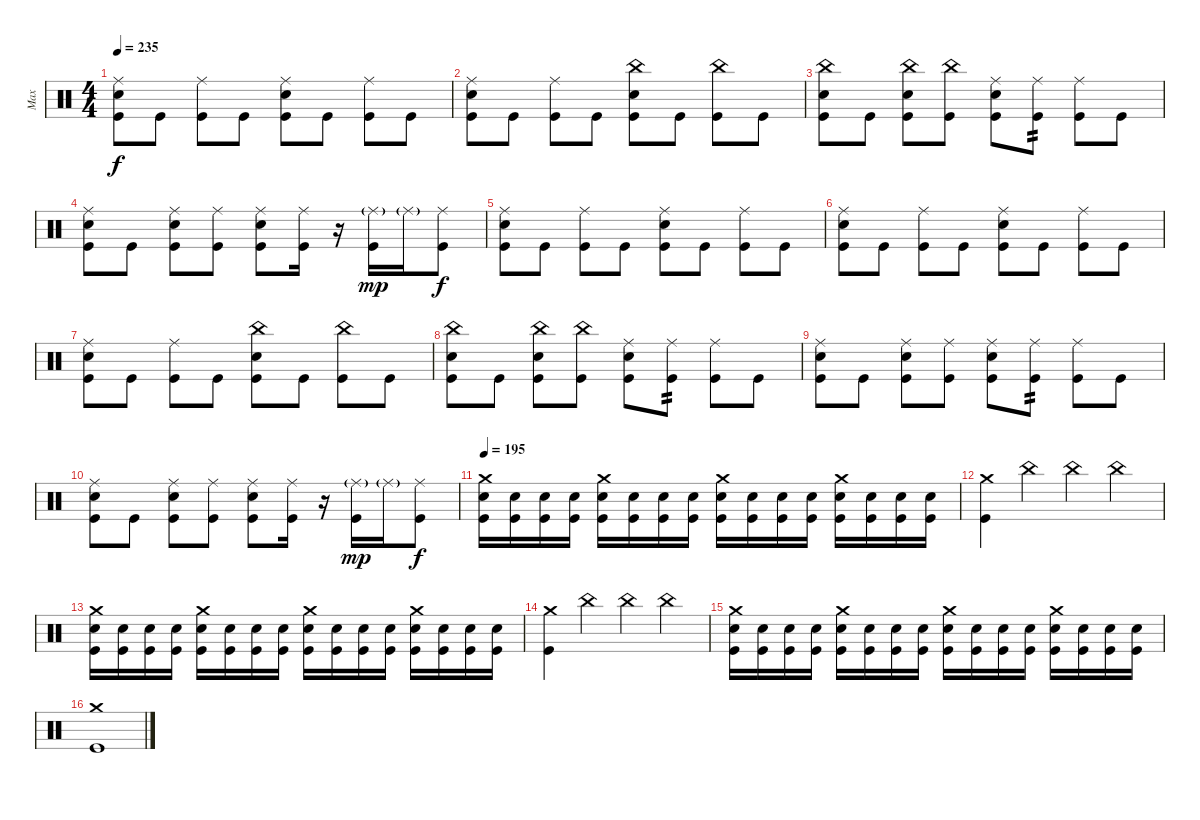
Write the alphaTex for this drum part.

\track ("Max" "Max") {instrument percussion}
\staff {score}
\articulation defaults
\ts (4 4)
\tempo 235
\clef neutral
\ks c
("Ride (middle)" "Electric Snare (hit)" "Kick (hit)").8{dy f} "Kick (hit)".8 ("Ride (middle)" "Kick (hit)").8 "Kick (hit)".8 ("Ride (middle)" "Electric Snare (hit)" "Kick (hit)").8 "Kick (hit)".8 ("Ride (middle)" "Kick (hit)").8 "Kick (hit)".8 |
("Ride (middle)" "Electric Snare (hit)" "Kick (hit)").8 "Kick (hit)".8 ("Ride (middle)" "Kick (hit)").8 "Kick (hit)".8 ("China (hit)" "Electric Snare (hit)" "Kick (hit)").8 "Kick (hit)".8 ("China (hit)" "Kick (hit)").8 "Kick (hit)".8 |
("China (hit)" "Electric Snare (hit)" "Kick (hit)").8 "Kick (hit)".8 ("China (hit)" "Electric Snare (hit)" "Kick (hit)").8 ("China (hit)" "Kick (hit)").8 ("Ride (middle)" "Electric Snare (hit)" "Kick (hit)").8 ("Ride (middle)" "Kick (hit)").8{tp 2} ("Ride (middle)" "Kick (hit)").8 "Kick (hit)".8 |
("Ride (middle)" "Electric Snare (hit)" "Kick (hit)").8 "Kick (hit)".8 ("Ride (middle)" "Electric Snare (hit)" "Kick (hit)").8 ("Ride (middle)" "Kick (hit)").8 ("Ride (middle)" "Electric Snare (hit)" "Kick (hit)").8 ("Ride (middle)" "Kick (hit)").16 r.16 ("Ride (middle)"{g} "Kick (hit)").16{dy mp} "Ride (middle)"{g}.16 ("Ride (middle)" "Kick (hit)").8{dy f} |
("Ride (middle)" "Electric Snare (hit)" "Kick (hit)").8 "Kick (hit)".8 ("Ride (middle)" "Kick (hit)").8 "Kick (hit)".8 ("Ride (middle)" "Electric Snare (hit)" "Kick (hit)").8 "Kick (hit)".8 ("Ride (middle)" "Kick (hit)").8 "Kick (hit)".8 |
("Ride (middle)" "Electric Snare (hit)" "Kick (hit)").8 "Kick (hit)".8 ("Ride (middle)" "Kick (hit)").8 "Kick (hit)".8 ("Ride (middle)" "Electric Snare (hit)" "Kick (hit)").8 "Kick (hit)".8 ("Ride (middle)" "Kick (hit)").8 "Kick (hit)".8 |
("Ride (middle)" "Electric Snare (hit)" "Kick (hit)").8 "Kick (hit)".8 ("Ride (middle)" "Kick (hit)").8 "Kick (hit)".8 ("China (hit)" "Electric Snare (hit)" "Kick (hit)").8 "Kick (hit)".8 ("China (hit)" "Kick (hit)").8 "Kick (hit)".8 |
("China (hit)" "Electric Snare (hit)" "Kick (hit)").8 "Kick (hit)".8 ("China (hit)" "Electric Snare (hit)" "Kick (hit)").8 ("China (hit)" "Kick (hit)").8 ("Ride (middle)" "Electric Snare (hit)" "Kick (hit)").8 ("Ride (middle)" "Kick (hit)").8{tp 2} ("Ride (middle)" "Kick (hit)").8 "Kick (hit)".8 |
("Ride (middle)" "Electric Snare (hit)" "Kick (hit)").8 "Kick (hit)".8 ("Ride (middle)" "Electric Snare (hit)" "Kick (hit)").8 ("Ride (middle)" "Kick (hit)").8 ("Ride (middle)" "Electric Snare (hit)" "Kick (hit)").8 ("Ride (middle)" "Kick (hit)").8{tp 2} ("Ride (middle)" "Kick (hit)").8 "Kick (hit)".8 |
("Ride (middle)" "Electric Snare (hit)" "Kick (hit)").8 "Kick (hit)".8 ("Ride (middle)" "Electric Snare (hit)" "Kick (hit)").8 ("Ride (middle)" "Kick (hit)").8 ("Ride (middle)" "Electric Snare (hit)" "Kick (hit)").8 ("Ride (middle)" "Kick (hit)").16 r.16 ("Ride (middle)"{g} "Kick (hit)").16{dy mp} "Ride (middle)"{g}.16 ("Ride (middle)" "Kick (hit)").8{dy f} |
\tempo 195
("Crash medium (hit)" "Electric Snare (hit)" "Kick (hit)").16 ("Electric Snare (hit)" "Kick (hit)").16 ("Electric Snare (hit)" "Kick (hit)").16 ("Electric Snare (hit)" "Kick (hit)").16 ("Crash medium (hit)" "Electric Snare (hit)" "Kick (hit)").16 ("Electric Snare (hit)" "Kick (hit)").16 ("Electric Snare (hit)" "Kick (hit)").16 ("Electric Snare (hit)" "Kick (hit)").16 ("Crash medium (hit)" "Electric Snare (hit)" "Kick (hit)").16 ("Electric Snare (hit)" "Kick (hit)").16 ("Electric Snare (hit)" "Kick (hit)").16 ("Electric Snare (hit)" "Kick (hit)").16 ("Crash medium (hit)" "Electric Snare (hit)" "Kick (hit)").16 ("Electric Snare (hit)" "Kick (hit)").16 ("Electric Snare (hit)" "Kick (hit)").16 ("Electric Snare (hit)" "Kick (hit)").16 |
("Crash medium (hit)" "Kick (hit)").4 "China (hit)".4 "China (hit)".4 "China (hit)".4 |
("Crash medium (hit)" "Electric Snare (hit)" "Kick (hit)").16 ("Electric Snare (hit)" "Kick (hit)").16 ("Electric Snare (hit)" "Kick (hit)").16 ("Electric Snare (hit)" "Kick (hit)").16 ("Crash medium (hit)" "Electric Snare (hit)" "Kick (hit)").16 ("Electric Snare (hit)" "Kick (hit)").16 ("Electric Snare (hit)" "Kick (hit)").16 ("Electric Snare (hit)" "Kick (hit)").16 ("Crash medium (hit)" "Electric Snare (hit)" "Kick (hit)").16 ("Electric Snare (hit)" "Kick (hit)").16 ("Electric Snare (hit)" "Kick (hit)").16 ("Electric Snare (hit)" "Kick (hit)").16 ("Crash medium (hit)" "Electric Snare (hit)" "Kick (hit)").16 ("Electric Snare (hit)" "Kick (hit)").16 ("Electric Snare (hit)" "Kick (hit)").16 ("Electric Snare (hit)" "Kick (hit)").16 |
("Crash medium (hit)" "Kick (hit)").4 "China (hit)".4 "China (hit)".4 "China (hit)".4 |
("Crash medium (hit)" "Electric Snare (hit)" "Kick (hit)").16 ("Electric Snare (hit)" "Kick (hit)").16 ("Electric Snare (hit)" "Kick (hit)").16 ("Electric Snare (hit)" "Kick (hit)").16 ("Crash medium (hit)" "Electric Snare (hit)" "Kick (hit)").16 ("Electric Snare (hit)" "Kick (hit)").16 ("Electric Snare (hit)" "Kick (hit)").16 ("Electric Snare (hit)" "Kick (hit)").16 ("Crash medium (hit)" "Electric Snare (hit)" "Kick (hit)").16 ("Electric Snare (hit)" "Kick (hit)").16 ("Electric Snare (hit)" "Kick (hit)").16 ("Electric Snare (hit)" "Kick (hit)").16 ("Crash medium (hit)" "Electric Snare (hit)" "Kick (hit)").16 ("Electric Snare (hit)" "Kick (hit)").16 ("Electric Snare (hit)" "Kick (hit)").16 ("Electric Snare (hit)" "Kick (hit)").16 |
("Crash medium (hit)" "Kick (hit)").1
